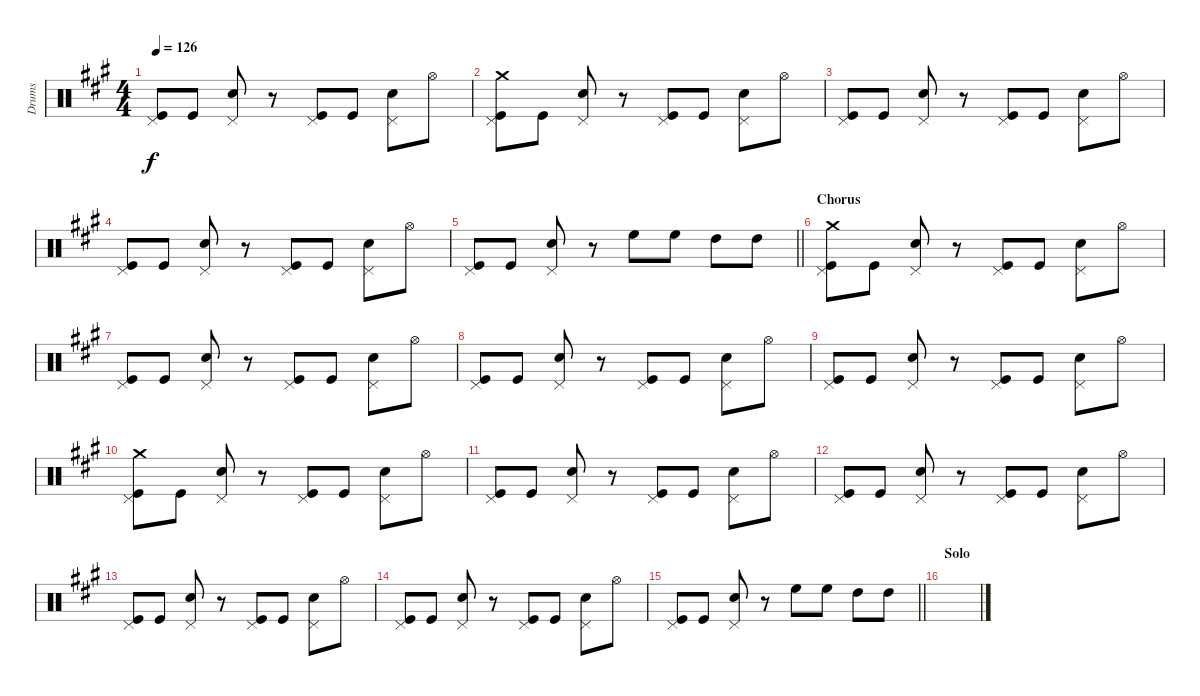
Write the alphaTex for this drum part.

\track ("Drums" "Drums") {instrument percussion}
\staff {score}
\articulation defaults
\ts (4 4)
\tempo 126
\clef neutral
\ks a
("Pedal Hi-Hat (hit)" "Kick (hit)").8{dy f} "Kick (hit)".8 ("Pedal Hi-Hat (hit)" "Snare (hit) 2").8 r.8 ("Pedal Hi-Hat (hit)" "Kick (hit)").8 "Kick (hit)".8 ("Pedal Hi-Hat (hit)" "Snare (hit) 2").8 "Hi-Hat (open)".8 |
("Crash medium (hit)" "Pedal Hi-Hat (hit)" "Kick (hit)").8 "Kick (hit)".8 ("Pedal Hi-Hat (hit)" "Snare (hit) 2").8 r.8 ("Pedal Hi-Hat (hit)" "Kick (hit)").8 "Kick (hit)".8 ("Pedal Hi-Hat (hit)" "Snare (hit) 2").8 "Hi-Hat (open)".8 |
("Pedal Hi-Hat (hit)" "Kick (hit)").8 "Kick (hit)".8 ("Pedal Hi-Hat (hit)" "Snare (hit) 2").8 r.8 ("Pedal Hi-Hat (hit)" "Kick (hit)").8 "Kick (hit)".8 ("Pedal Hi-Hat (hit)" "Snare (hit) 2").8 "Hi-Hat (open)".8 |
("Pedal Hi-Hat (hit)" "Kick (hit)").8 "Kick (hit)".8 ("Pedal Hi-Hat (hit)" "Snare (hit) 2").8 r.8 ("Pedal Hi-Hat (hit)" "Kick (hit)").8 "Kick (hit)".8 ("Pedal Hi-Hat (hit)" "Snare (hit) 2").8 "Hi-Hat (open)".8 |
\barLineRight lightlight
("Pedal Hi-Hat (hit)" "Kick (hit)").8 "Kick (hit)".8 ("Pedal Hi-Hat (hit)" "Snare (hit) 2").8 r.8 "High Floor Tom (hit)".8 "High Floor Tom (hit)".8 "High Tom (hit)".8 "High Tom (hit)".8 |
\section ("" "Chorus")
("Crash medium (hit)" "Pedal Hi-Hat (hit)" "Kick (hit)").8 "Kick (hit)".8 ("Pedal Hi-Hat (hit)" "Snare (hit) 2").8 r.8 ("Pedal Hi-Hat (hit)" "Kick (hit)").8 "Kick (hit)".8 ("Pedal Hi-Hat (hit)" "Snare (hit) 2").8 "Hi-Hat (open)".8 |
("Pedal Hi-Hat (hit)" "Kick (hit)").8 "Kick (hit)".8 ("Pedal Hi-Hat (hit)" "Snare (hit) 2").8 r.8 ("Pedal Hi-Hat (hit)" "Kick (hit)").8 "Kick (hit)".8 ("Pedal Hi-Hat (hit)" "Snare (hit) 2").8 "Hi-Hat (open)".8 |
("Pedal Hi-Hat (hit)" "Kick (hit)").8 "Kick (hit)".8 ("Pedal Hi-Hat (hit)" "Snare (hit) 2").8 r.8 ("Pedal Hi-Hat (hit)" "Kick (hit)").8 "Kick (hit)".8 ("Pedal Hi-Hat (hit)" "Snare (hit) 2").8 "Hi-Hat (open)".8 |
("Pedal Hi-Hat (hit)" "Kick (hit)").8 "Kick (hit)".8 ("Pedal Hi-Hat (hit)" "Snare (hit) 2").8 r.8 ("Pedal Hi-Hat (hit)" "Kick (hit)").8 "Kick (hit)".8 ("Pedal Hi-Hat (hit)" "Snare (hit) 2").8 "Hi-Hat (open)".8 |
("Crash medium (hit)" "Pedal Hi-Hat (hit)" "Kick (hit)").8 "Kick (hit)".8 ("Pedal Hi-Hat (hit)" "Snare (hit) 2").8 r.8 ("Pedal Hi-Hat (hit)" "Kick (hit)").8 "Kick (hit)".8 ("Pedal Hi-Hat (hit)" "Snare (hit) 2").8 "Hi-Hat (open)".8 |
("Pedal Hi-Hat (hit)" "Kick (hit)").8 "Kick (hit)".8 ("Pedal Hi-Hat (hit)" "Snare (hit) 2").8 r.8 ("Pedal Hi-Hat (hit)" "Kick (hit)").8 "Kick (hit)".8 ("Pedal Hi-Hat (hit)" "Snare (hit) 2").8 "Hi-Hat (open)".8 |
("Pedal Hi-Hat (hit)" "Kick (hit)").8 "Kick (hit)".8 ("Pedal Hi-Hat (hit)" "Snare (hit) 2").8 r.8 ("Pedal Hi-Hat (hit)" "Kick (hit)").8 "Kick (hit)".8 ("Pedal Hi-Hat (hit)" "Snare (hit) 2").8 "Hi-Hat (open)".8 |
("Pedal Hi-Hat (hit)" "Kick (hit)").8 "Kick (hit)".8 ("Pedal Hi-Hat (hit)" "Snare (hit) 2").8 r.8 ("Pedal Hi-Hat (hit)" "Kick (hit)").8 "Kick (hit)".8 ("Pedal Hi-Hat (hit)" "Snare (hit) 2").8 "Hi-Hat (open)".8 |
("Pedal Hi-Hat (hit)" "Kick (hit)").8 "Kick (hit)".8 ("Pedal Hi-Hat (hit)" "Snare (hit) 2").8 r.8 ("Pedal Hi-Hat (hit)" "Kick (hit)").8 "Kick (hit)".8 ("Pedal Hi-Hat (hit)" "Snare (hit) 2").8 "Hi-Hat (open)".8 |
\barLineRight lightlight
("Pedal Hi-Hat (hit)" "Kick (hit)").8 "Kick (hit)".8 ("Pedal Hi-Hat (hit)" "Snare (hit) 2").8 r.8 "High Floor Tom (hit)".8 "High Floor Tom (hit)".8 "High Tom (hit)".8 "High Tom (hit)".8 |
\section ("" "Solo")
